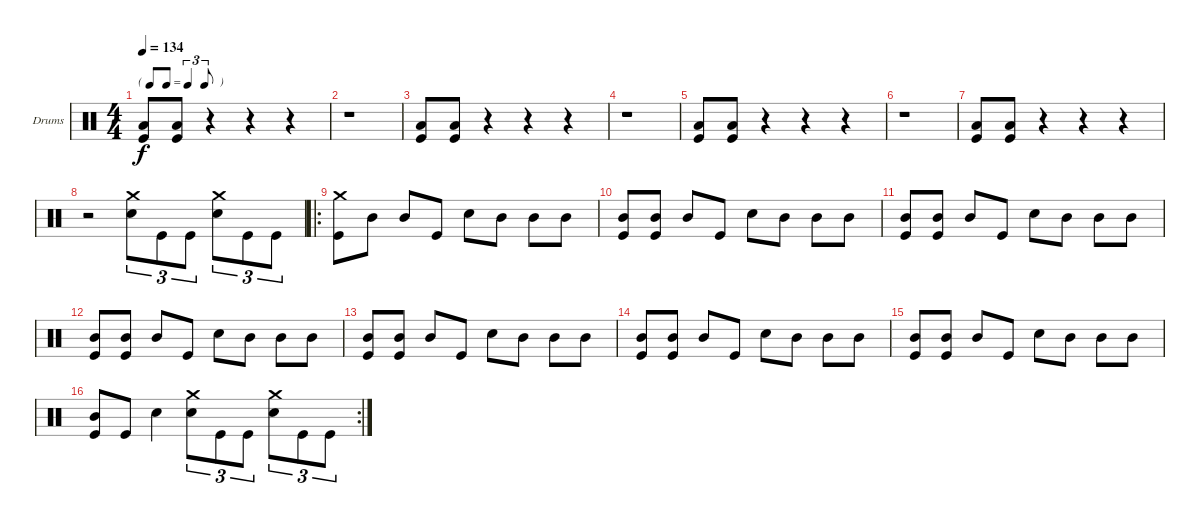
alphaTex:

\defaultSystemsLayout 4
\bracketExtendMode groupsimilarinstruments
\firstSystemTrackNameOrientation horizontal
\otherSystemsTrackNameOrientation horizontal
\track ("Drumkit" "Drums") {instrument percussion}
\staff {score}
\articulation defaults
\ts (4 4)
\tf triplet8th
\tempo 134
\clef neutral
\ks c
("Kick (hit)" "Low Tom (hit)").8{dy f} ("Kick (hit)" "Low Tom (hit)").8 r.4 r.4 r.4 |
r.1 |
("Kick (hit)" "Low Tom (hit)").8 ("Kick (hit)" "Low Tom (hit)").8 r.4 r.4 r.4 |
r.1 |
("Kick (hit)" "Low Tom (hit)").8 ("Kick (hit)" "Low Tom (hit)").8 r.4 r.4 r.4 |
r.1 |
("Kick (hit)" "Low Tom (hit)").8 ("Kick (hit)" "Low Tom (hit)").8 r.4 r.4 r.4 |
r.2 ("Snare (hit) 2" "Crash medium (hit)").8{tu (3 2)} "Kick (hit)".8{tu (3 2)} "Kick (hit)".8{tu (3 2)} ("Snare (hit) 2" "Crash medium (hit)").8{tu (3 2)} "Kick (hit)".8{tu (3 2)} "Kick (hit)".8{tu (3 2)} |
\ro
("Crash medium (hit)" "Kick (hit)").8 "Mid Tom (hit)".8 "Mid Tom (hit)".8 "Kick (hit)".8 "Snare (hit) 2".8 "Mid Tom (hit)".8 "Mid Tom (hit)".8 "Mid Tom (hit)".8 |
("Kick (hit)" "Mid Tom (hit)").8 ("Mid Tom (hit)" "Kick (hit)").8 "Mid Tom (hit)".8 "Kick (hit)".8 "Snare (hit) 2".8 "Mid Tom (hit)".8 "Mid Tom (hit)".8 "Mid Tom (hit)".8 |
("Kick (hit)" "Mid Tom (hit)").8 ("Mid Tom (hit)" "Kick (hit)").8 "Mid Tom (hit)".8 "Kick (hit)".8 "Snare (hit) 2".8 "Mid Tom (hit)".8 "Mid Tom (hit)".8 "Mid Tom (hit)".8 |
("Kick (hit)" "Mid Tom (hit)").8 ("Mid Tom (hit)" "Kick (hit)").8 "Mid Tom (hit)".8 "Kick (hit)".8 "Snare (hit) 2".8 "Mid Tom (hit)".8 "Mid Tom (hit)".8 "Mid Tom (hit)".8 |
("Kick (hit)" "Mid Tom (hit)").8 ("Mid Tom (hit)" "Kick (hit)").8 "Mid Tom (hit)".8 "Kick (hit)".8 "Snare (hit) 2".8 "Mid Tom (hit)".8 "Mid Tom (hit)".8 "Mid Tom (hit)".8 |
("Kick (hit)" "Mid Tom (hit)").8 ("Mid Tom (hit)" "Kick (hit)").8 "Mid Tom (hit)".8 "Kick (hit)".8 "Snare (hit) 2".8 "Mid Tom (hit)".8 "Mid Tom (hit)".8 "Mid Tom (hit)".8 |
("Kick (hit)" "Mid Tom (hit)").8 ("Mid Tom (hit)" "Kick (hit)").8 "Mid Tom (hit)".8 "Kick (hit)".8 "Snare (hit) 2".8 "Mid Tom (hit)".8 "Mid Tom (hit)".8 "Mid Tom (hit)".8 |
\rc 2
("Kick (hit)" "Mid Tom (hit)").8 "Kick (hit)".8 "Snare (hit) 2".4 ("Snare (hit) 2" "Crash medium (hit)").8{tu (3 2)} "Kick (hit)".8{tu (3 2)} "Kick (hit)".8{tu (3 2)} ("Snare (hit) 2" "Crash medium (hit)").8{tu (3 2)} "Kick (hit)".8{tu (3 2)} "Kick (hit)".8{tu (3 2)}
